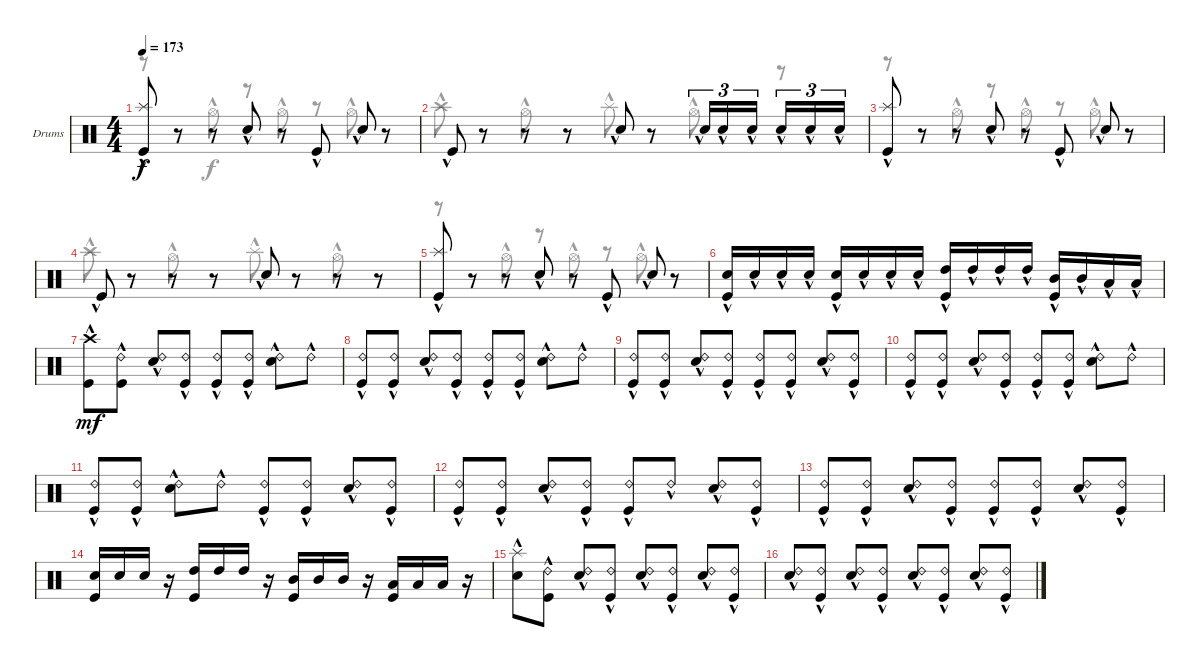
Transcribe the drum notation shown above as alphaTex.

\defaultSystemsLayout 4
\bracketExtendMode groupsimilarinstruments
\firstSystemTrackNameOrientation horizontal
\otherSystemsTrackNameOrientation horizontal
\track ("Drumkit" "Drums") {instrument percussion}
\staff {score}
\articulation defaults
\voice
\ts (4 4)
\tempo 173
\clef neutral
\ks c
("Splash (hit)"{hac} "Kick (hit)"{hac}).8{dy f} r.8 r.8 "Snare (hit) 2"{hac}.8 r.8 "Kick (hit)"{hac}.8 "Snare (hit) 2"{hac}.8 r.8 |
"Kick (hit)"{hac}.8 r.8 r.8 r.8 "Snare (hit) 2"{hac}.8 r.8 "Snare (hit) 2"{hac}.16{tu (3 2)} "Snare (hit) 2"{hac}.16{tu (3 2)} "Snare (hit) 2"{hac}.16{tu (3 2)} "Snare (hit) 2"{hac}.16{tu (3 2)} "Snare (hit) 2"{hac}.16{tu (3 2)} "Snare (hit) 2"{hac}.16{tu (3 2)} |
("Splash (hit)"{hac} "Kick (hit)"{hac}).8 r.8 r.8 "Snare (hit) 2"{hac}.8 r.8 "Kick (hit)"{hac}.8 "Snare (hit) 2"{hac}.8 r.8 |
"Kick (hit)"{hac}.8 r.8 r.8 r.8 "Snare (hit) 2"{hac}.8 r.8 r.8 r.8 |
("Splash (hit)"{hac} "Kick (hit)"{hac}).8 r.8 r.8 "Snare (hit) 2"{hac}.8 r.8 "Kick (hit)"{hac}.8 "Snare (hit) 2"{hac}.8 r.8 |
("Kick (hit)"{hac} "Snare (hit) 2"{hac}).16 "Snare (hit) 2"{hac}.16 "Snare (hit) 2"{hac}.16 "Snare (hit) 2"{hac}.16 ("Kick (hit)"{hac} "Snare (hit) 2"{hac}).16 "Snare (hit) 2"{hac}.16 "Snare (hit) 2"{hac}.16 "Snare (hit) 2"{hac}.16 ("Kick (hit)"{hac} "High Tom (hit)"{hac}).16 "High Tom (hit)"{hac}.16 "High Tom (hit)"{hac}.16 "High Tom (hit)"{hac}.16 ("Mid Tom (hit)"{hac} "Kick (hit)"{hac}).16 "Mid Tom (hit)"{hac}.16 "Low Tom (hit)"{hac}.16 "Low Tom (hit)"{hac}.16 |
("Kick (hit)"{hac} "Crash high (hit)"{hac}).8{dy mf} ("Ride (bell) 2"{hac} "Kick (hit)"{hac}).8 ("Ride (bell) 2"{hac} "Snare (hit) 2"{hac}).8 ("Ride (bell) 2"{hac} "Kick (hit)"{hac}).8 ("Ride (bell) 2"{hac} "Kick (hit)"{hac}).8 ("Ride (bell) 2"{hac} "Kick (hit)"{hac}).8 ("Ride (bell) 2"{hac} "Snare (hit) 2"{hac}).8 "Ride (bell) 2"{hac}.8 |
("Ride (bell) 2"{hac} "Kick (hit)"{hac}).8 ("Ride (bell) 2"{hac} "Kick (hit)"{hac}).8 ("Ride (bell) 2"{hac} "Snare (hit) 2"{hac}).8 ("Ride (bell) 2"{hac} "Kick (hit)"{hac}).8 ("Ride (bell) 2"{hac} "Kick (hit)"{hac}).8 ("Ride (bell) 2"{hac} "Kick (hit)"{hac}).8 ("Ride (bell) 2"{hac} "Snare (hit) 2"{hac}).8 "Ride (bell) 2"{hac}.8 |
("Ride (bell) 2"{hac} "Kick (hit)"{hac}).8 ("Ride (bell) 2"{hac} "Kick (hit)"{hac}).8 ("Ride (bell) 2"{hac} "Snare (hit) 2"{hac}).8 ("Ride (bell) 2"{hac} "Kick (hit)"{hac}).8 ("Ride (bell) 2"{hac} "Kick (hit)"{hac}).8 ("Ride (bell) 2"{hac} "Kick (hit)"{hac}).8 ("Ride (bell) 2"{hac} "Snare (hit) 2"{hac}).8 ("Ride (bell) 2"{hac} "Kick (hit)"{hac}).8 |
("Ride (bell) 2"{hac} "Kick (hit)"{hac}).8 ("Ride (bell) 2"{hac} "Kick (hit)"{hac}).8 ("Ride (bell) 2"{hac} "Snare (hit) 2"{hac}).8 ("Ride (bell) 2"{hac} "Kick (hit)"{hac}).8 ("Ride (bell) 2"{hac} "Kick (hit)"{hac}).8 ("Ride (bell) 2"{hac} "Kick (hit)"{hac}).8 ("Ride (bell) 2"{hac} "Snare (hit) 2"{hac}).8 "Ride (bell) 2"{hac}.8 |
("Ride (bell) 2"{hac} "Kick (hit)"{hac}).8 ("Ride (bell) 2"{hac} "Kick (hit)"{hac}).8 ("Ride (bell) 2"{hac} "Snare (hit) 2"{hac}).8 "Ride (bell) 2"{hac}.8 ("Ride (bell) 2"{hac} "Kick (hit)"{hac}).8 ("Ride (bell) 2"{hac} "Kick (hit)"{hac}).8 ("Ride (bell) 2"{hac} "Snare (hit) 2"{hac}).8 ("Ride (bell) 2"{hac} "Kick (hit)"{hac}).8 |
("Ride (bell) 2"{hac} "Kick (hit)"{hac}).8 ("Ride (bell) 2"{hac} "Kick (hit)"{hac}).8 ("Ride (bell) 2"{hac} "Snare (hit) 2"{hac}).8 ("Ride (bell) 2"{hac} "Kick (hit)"{hac}).8 ("Ride (bell) 2"{hac} "Kick (hit)"{hac}).8 "Ride (bell) 2"{hac}.8 ("Ride (bell) 2"{hac} "Snare (hit) 2"{hac}).8 ("Ride (bell) 2"{hac} "Kick (hit)"{hac}).8 |
("Ride (bell) 2"{hac} "Kick (hit)"{hac}).8 ("Ride (bell) 2"{hac} "Kick (hit)"{hac}).8 ("Ride (bell) 2"{hac} "Snare (hit) 2"{hac}).8 ("Ride (bell) 2"{hac} "Kick (hit)"{hac}).8 ("Ride (bell) 2"{hac} "Kick (hit)"{hac}).8 ("Ride (bell) 2"{hac} "Kick (hit)"{hac}).8 ("Ride (bell) 2"{hac} "Snare (hit) 2"{hac}).8 ("Ride (bell) 2"{hac} "Kick (hit)"{hac}).8 |
("Snare (hit) 2" "Kick (hit)").16 "Snare (hit) 2".16 "Snare (hit) 2".16 r.16 ("High Tom (hit)" "Kick (hit)").16 "High Tom (hit)".16 "High Tom (hit)".16 r.16 ("Mid Tom (hit)" "Kick (hit)").16 "Mid Tom (hit)".16 "Mid Tom (hit)".16 r.16 ("Low Tom (hit)" "Kick (hit)").16 "Low Tom (hit)".16 "Low Tom (hit)".16 r.16 |
("Snare (hit) 2"{hac} "Splash (hit)"{hac}).8 ("Kick (hit)"{hac} "Ride (bell) 2"{hac}).8 ("Snare (hit) 2"{hac} "Ride (bell) 2"{hac}).8 ("Kick (hit)"{hac} "Ride (bell) 2"{hac}).8 ("Snare (hit) 2"{hac} "Ride (bell) 2"{hac}).8 ("Kick (hit)"{hac} "Ride (bell) 2"{hac}).8 ("Snare (hit) 2"{hac} "Ride (bell) 2"{hac}).8 ("Kick (hit)"{hac} "Ride (bell) 2"{hac}).8 |
("Snare (hit) 2"{hac} "Ride (bell) 2"{hac}).8 ("Kick (hit)"{hac} "Ride (bell) 2"{hac}).8 ("Snare (hit) 2"{hac} "Ride (bell) 2"{hac}).8 ("Kick (hit)"{hac} "Ride (bell) 2"{hac}).8 ("Snare (hit) 2"{hac} "Ride (bell) 2"{hac}).8 ("Kick (hit)"{hac} "Ride (bell) 2"{hac}).8 ("Snare (hit) 2"{hac} "Ride (bell) 2"{hac}).8 ("Kick (hit)"{hac} "Ride (bell) 2"{hac}).8
\voice
\clef neutral
\ottava regular
\simile none
\ks c
r.8{dy f} r.8 "Hi-Hat (open)"{hac}.8 r.8 "Hi-Hat (open)"{hac}.8 r.8 "Hi-Hat (open)"{hac}.8 r.8 |
"Crash high (hit)"{hac}.8 r.8 "Hi-Hat (open)"{hac}.8 r.8 "Splash (hit)"{hac}.8 r.8 "Hi-Hat (open)"{hac}.8 r.8 |
r.8 r.8 "Hi-Hat (open)"{hac}.8 r.8 "Hi-Hat (open)"{hac}.8 r.8 "Hi-Hat (open)"{hac}.8 r.8 |
"Crash high (hit)"{hac}.8 r.8 "Hi-Hat (open)"{hac}.8 r.8 "Splash (hit)"{hac}.8 r.8 "Hi-Hat (open)"{hac}.8 r.8 |
r.8 r.8 "Hi-Hat (open)"{hac}.8 r.8 "Hi-Hat (open)"{hac}.8 r.8 "Hi-Hat (open)"{hac}.8 r.8 |
|
|
|
|
|
|
|
|
|
|
